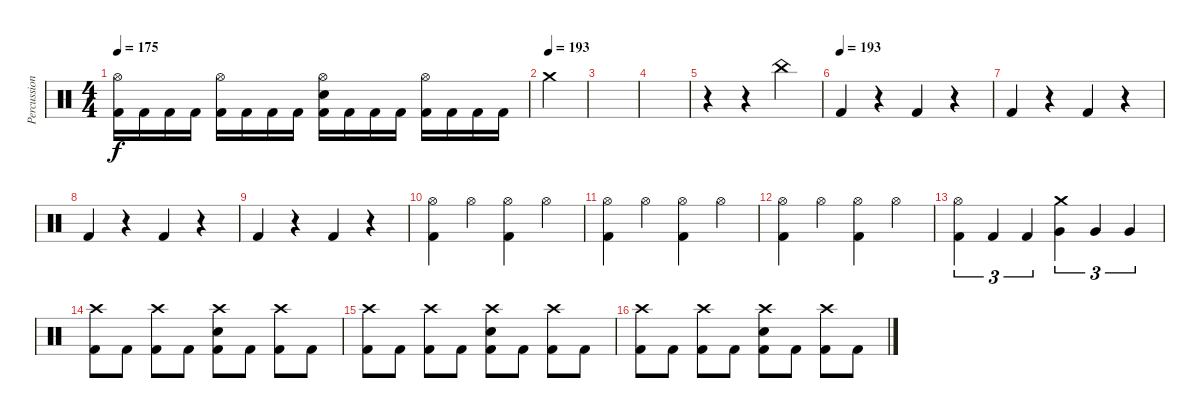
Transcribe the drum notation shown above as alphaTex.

\track ("Percussion" "Percussion") {instrument percussion}
\staff {score}
\articulation defaults
\ts (4 4)
\tempo 175
\clef neutral
\ks c
("Hi-Hat (open)" "Kick (hit) 2").16{dy f} "Kick (hit) 2".16 "Kick (hit) 2".16 "Kick (hit) 2".16 ("Hi-Hat (open)" "Kick (hit) 2").16 "Kick (hit) 2".16 "Kick (hit) 2".16 "Kick (hit) 2".16 ("Hi-Hat (open)" "Electric Snare (hit)" "Kick (hit) 2").16 "Kick (hit) 2".16 "Kick (hit) 2".16 "Kick (hit) 2".16 ("Hi-Hat (open)" "Kick (hit) 2").16 "Kick (hit) 2".16 "Kick (hit) 2".16 "Kick (hit) 2".16 |
\tempo (193)
"Crash medium (hit)".4 |
|
|
r.4 r.4 "China (hit)".4 |
\tempo (193)
"Kick (hit) 2".4 r.4 "Kick (hit) 2".4 r.4 |
"Kick (hit) 2".4 r.4 "Kick (hit) 2".4 r.4 |
"Kick (hit) 2".4 r.4 "Kick (hit) 2".4 r.4 |
"Kick (hit) 2".4 r.4 "Kick (hit) 2".4 r.4 |
("Hi-Hat (open)" "Kick (hit) 2").4 "Hi-Hat (open)".4 ("Hi-Hat (open)" "Kick (hit) 2").4 "Hi-Hat (open)".4 |
("Hi-Hat (open)" "Kick (hit) 2").4 "Hi-Hat (open)".4 ("Hi-Hat (open)" "Kick (hit) 2").4 "Hi-Hat (open)".4 |
("Hi-Hat (open)" "Kick (hit) 2").4 "Hi-Hat (open)".4 ("Hi-Hat (open)" "Kick (hit) 2").4 "Hi-Hat (open)".4 |
("Hi-Hat (open)" "Kick (hit) 2").4{tu (3 2)} "Kick (hit) 2".4{tu (3 2)} "Kick (hit) 2".4{tu (3 2)} ("Crash medium (hit)" "Very Low Tom (hit)").4{tu (3 2)} "Very Low Tom (hit)".4{tu (3 2)} "Very Low Tom (hit)".4{tu (3 2)} |
("Crash high (hit)" "Kick (hit) 2").8 "Kick (hit) 2".8 ("Crash high (hit)" "Kick (hit) 2").8 "Kick (hit) 2".8 ("Crash high (hit)" "Electric Snare (hit)" "Kick (hit) 2").8 "Kick (hit) 2".8 ("Crash high (hit)" "Kick (hit) 2").8 "Kick (hit) 2".8 |
("Crash high (hit)" "Kick (hit) 2").8 "Kick (hit) 2".8 ("Crash high (hit)" "Kick (hit) 2").8 "Kick (hit) 2".8 ("Crash high (hit)" "Electric Snare (hit)" "Kick (hit) 2").8 "Kick (hit) 2".8 ("Crash high (hit)" "Kick (hit) 2").8 "Kick (hit) 2".8 |
("Crash high (hit)" "Kick (hit) 2").8 "Kick (hit) 2".8 ("Crash high (hit)" "Kick (hit) 2").8 "Kick (hit) 2".8 ("Crash high (hit)" "Electric Snare (hit)" "Kick (hit) 2").8 "Kick (hit) 2".8 ("Crash high (hit)" "Kick (hit) 2").8 "Kick (hit) 2".8
